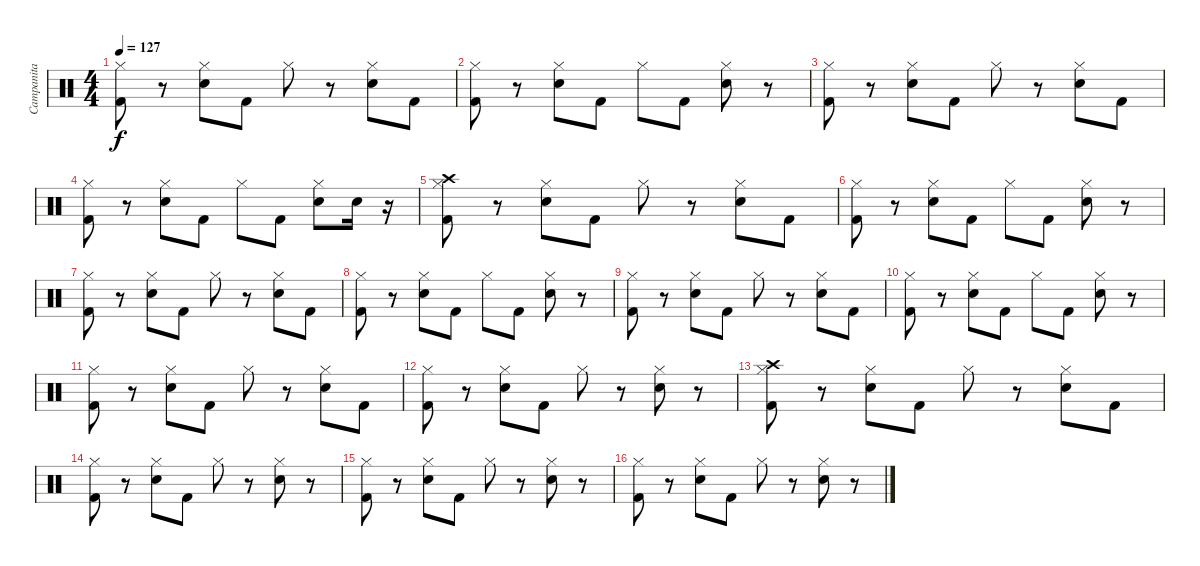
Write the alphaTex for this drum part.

\track ("Campanita" "Campanita") {instrument percussion}
\staff {score}
\articulation defaults
\ts (4 4)
\tempo 127
\clef neutral
\ks c
("Kick (hit) 2" "Hi-Hat (closed)").8{dy f} r.8 ("Electric Snare (hit)" "Hi-Hat (closed)").8 "Kick (hit) 2".8 "Hi-Hat (closed)".8 r.8 ("Electric Snare (hit)" "Hi-Hat (closed)").8 "Kick (hit) 2".8 |
("Kick (hit) 2" "Hi-Hat (closed)").8 r.8 ("Electric Snare (hit)" "Hi-Hat (closed)").8 "Kick (hit) 2".8 "Hi-Hat (closed)".8 "Kick (hit) 2".8 ("Electric Snare (hit)" "Hi-Hat (closed)").8 r.8 |
("Kick (hit) 2" "Hi-Hat (closed)").8 r.8 ("Electric Snare (hit)" "Hi-Hat (closed)").8 "Kick (hit) 2".8 "Hi-Hat (closed)".8 r.8 ("Electric Snare (hit)" "Hi-Hat (closed)").8 "Kick (hit) 2".8 |
("Kick (hit) 2" "Hi-Hat (closed)").8 r.8 ("Electric Snare (hit)" "Hi-Hat (closed)").8 "Kick (hit) 2".8 "Hi-Hat (closed)".8 "Kick (hit) 2".8 ("Electric Snare (hit)" "Hi-Hat (closed)").8 "Electric Snare (hit)".16 r.16 |
("Kick (hit) 2" "Hi-Hat (closed)" "Crash high (hit)").8 r.8 ("Electric Snare (hit)" "Hi-Hat (closed)").8 "Kick (hit) 2".8 "Hi-Hat (closed)".8 r.8 ("Electric Snare (hit)" "Hi-Hat (closed)").8 "Kick (hit) 2".8 |
("Kick (hit) 2" "Hi-Hat (closed)").8 r.8 ("Electric Snare (hit)" "Hi-Hat (closed)").8 "Kick (hit) 2".8 "Hi-Hat (closed)".8 "Kick (hit) 2".8 ("Electric Snare (hit)" "Hi-Hat (closed)").8 r.8 |
("Kick (hit) 2" "Hi-Hat (closed)").8 r.8 ("Electric Snare (hit)" "Hi-Hat (closed)").8 "Kick (hit) 2".8 "Hi-Hat (closed)".8 r.8 ("Electric Snare (hit)" "Hi-Hat (closed)").8 "Kick (hit) 2".8 |
("Kick (hit) 2" "Hi-Hat (closed)").8 r.8 ("Electric Snare (hit)" "Hi-Hat (closed)").8 "Kick (hit) 2".8 "Hi-Hat (closed)".8 "Kick (hit) 2".8 ("Electric Snare (hit)" "Hi-Hat (closed)").8 r.8 |
("Kick (hit) 2" "Hi-Hat (closed)").8 r.8 ("Electric Snare (hit)" "Hi-Hat (closed)").8 "Kick (hit) 2".8 "Hi-Hat (closed)".8 r.8 ("Electric Snare (hit)" "Hi-Hat (closed)").8 "Kick (hit) 2".8 |
("Kick (hit) 2" "Hi-Hat (closed)").8 r.8 ("Electric Snare (hit)" "Hi-Hat (closed)").8 "Kick (hit) 2".8 "Hi-Hat (closed)".8 "Kick (hit) 2".8 ("Electric Snare (hit)" "Hi-Hat (closed)").8 r.8 |
("Kick (hit) 2" "Hi-Hat (closed)").8 r.8 ("Electric Snare (hit)" "Hi-Hat (closed)").8 "Kick (hit) 2".8 "Hi-Hat (closed)".8 r.8 ("Electric Snare (hit)" "Hi-Hat (closed)").8 "Kick (hit) 2".8 |
("Kick (hit) 2" "Hi-Hat (closed)").8 r.8 ("Electric Snare (hit)" "Hi-Hat (closed)").8 "Kick (hit) 2".8 "Hi-Hat (closed)".8 r.8 ("Electric Snare (hit)" "Hi-Hat (closed)").8 r.8 |
("Kick (hit) 2" "Hi-Hat (closed)" "Crash high (hit)").8 r.8 ("Electric Snare (hit)" "Hi-Hat (closed)").8 "Kick (hit) 2".8 "Hi-Hat (closed)".8 r.8 ("Electric Snare (hit)" "Hi-Hat (closed)").8 "Kick (hit) 2".8 |
("Kick (hit) 2" "Hi-Hat (closed)").8 r.8 ("Electric Snare (hit)" "Hi-Hat (closed)").8 "Kick (hit) 2".8 "Hi-Hat (closed)".8 r.8 ("Electric Snare (hit)" "Hi-Hat (closed)").8 r.8 |
("Kick (hit) 2" "Hi-Hat (closed)").8 r.8 ("Electric Snare (hit)" "Hi-Hat (closed)").8 "Kick (hit) 2".8 "Hi-Hat (closed)".8 r.8 ("Electric Snare (hit)" "Hi-Hat (closed)").8 r.8 |
("Kick (hit) 2" "Hi-Hat (closed)").8 r.8 ("Electric Snare (hit)" "Hi-Hat (closed)").8 "Kick (hit) 2".8 "Hi-Hat (closed)".8 r.8 ("Electric Snare (hit)" "Hi-Hat (closed)").8 r.8
